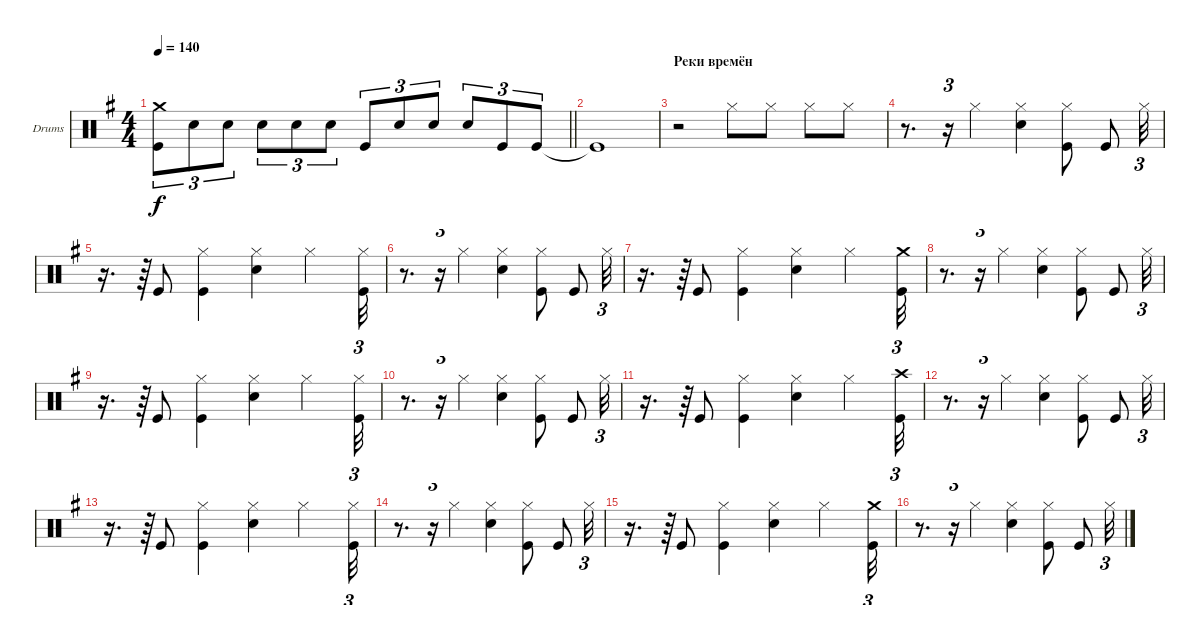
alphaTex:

\bracketExtendMode groupsimilarinstruments
\firstSystemTrackNameOrientation horizontal
\otherSystemsTrackNameOrientation horizontal
\track ("Александр Манякин" "Drums") {instrument percussion}
\staff {score}
\articulation defaults
\ts (4 4)
\tempo 140
\clef neutral
\barLineRight lightlight
\ks eminor
("Kick (hit)" "Crash medium (hit)").8{tu (3 2) dy f} "Snare (hit) 2".8{tu (3 2)} "Snare (hit) 2".8{tu (3 2)} "Snare (hit) 2".8{tu (3 2)} "Snare (hit) 2".8{tu (3 2)} "Snare (hit) 2".8{tu (3 2)} "Kick (hit)".8{tu (3 2)} "Snare (hit) 2".8{tu (3 2)} "Snare (hit) 2".8{tu (3 2)} "Snare (hit) 2".8{tu (3 2)} "Kick (hit)".8{tu (3 2)} "Kick (hit)".8{tu (3 2)} |
"Kick (hit)"{t}.1 |
\section ("" "Реки времён")
r.2 "Hi-Hat (closed)".8 "Hi-Hat (closed)".8 "Hi-Hat (closed)".8 "Hi-Hat (closed)".8 |
r.8{d} r.16{tu (3 2)} "Hi-Hat (closed)".4 ("Snare (hit) 2" "Hi-Hat (closed)").4 ("Kick (hit)" "Hi-Hat (closed)").8 "Kick (hit)".8 "Hi-Hat (closed)".32{tu (3 2)} |
r.16{d} r.64{tu (3 2)} "Kick (hit)".8 ("Kick (hit)" "Hi-Hat (closed)").4 ("Snare (hit) 2" "Hi-Hat (closed)").4 "Hi-Hat (closed)".4 ("Hi-Hat (closed)" "Kick (hit)").32{tu (3 2)} |
r.8{d} r.16{tu (3 2)} "Hi-Hat (closed)".4 ("Snare (hit) 2" "Hi-Hat (closed)").4 ("Kick (hit)" "Hi-Hat (closed)").8 "Kick (hit)".8 "Hi-Hat (closed)".32{tu (3 2)} |
r.16{d} r.64{tu (3 2)} "Kick (hit)".8 ("Kick (hit)" "Hi-Hat (closed)").4 ("Snare (hit) 2" "Hi-Hat (closed)").4 "Hi-Hat (closed)".4 ("Kick (hit)" "Crash medium (hit)").32{tu (3 2)} |
r.8{d} r.16{tu (3 2)} "Hi-Hat (closed)".4 ("Snare (hit) 2" "Hi-Hat (closed)").4 ("Kick (hit)" "Hi-Hat (closed)").8 "Kick (hit)".8 "Hi-Hat (closed)".32{tu (3 2)} |
r.16{d} r.64{tu (3 2)} "Kick (hit)".8 ("Kick (hit)" "Hi-Hat (closed)").4 ("Snare (hit) 2" "Hi-Hat (closed)").4 "Hi-Hat (closed)".4 ("Hi-Hat (closed)" "Kick (hit)").32{tu (3 2)} |
r.8{d} r.16{tu (3 2)} "Hi-Hat (closed)".4 ("Snare (hit) 2" "Hi-Hat (closed)").4 ("Kick (hit)" "Hi-Hat (closed)").8 "Kick (hit)".8 "Hi-Hat (closed)".32{tu (3 2)} |
r.16{d} r.64{tu (3 2)} "Kick (hit)".8 ("Kick (hit)" "Hi-Hat (closed)").4 ("Snare (hit) 2" "Hi-Hat (closed)").4 "Hi-Hat (closed)".4 ("Kick (hit)" "Crash high (hit)").32{tu (3 2)} |
r.8{d} r.16{tu (3 2)} "Hi-Hat (closed)".4 ("Snare (hit) 2" "Hi-Hat (closed)").4 ("Kick (hit)" "Hi-Hat (closed)").8 "Kick (hit)".8 "Hi-Hat (closed)".32{tu (3 2)} |
r.16{d} r.64{tu (3 2)} "Kick (hit)".8 ("Kick (hit)" "Hi-Hat (closed)").4 ("Snare (hit) 2" "Hi-Hat (closed)").4 "Hi-Hat (closed)".4 ("Hi-Hat (closed)" "Kick (hit)").32{tu (3 2)} |
r.8{d} r.16{tu (3 2)} "Hi-Hat (closed)".4 ("Snare (hit) 2" "Hi-Hat (closed)").4 ("Kick (hit)" "Hi-Hat (closed)").8 "Kick (hit)".8 "Hi-Hat (closed)".32{tu (3 2)} |
r.16{d} r.64{tu (3 2)} "Kick (hit)".8 ("Kick (hit)" "Hi-Hat (closed)").4 ("Snare (hit) 2" "Hi-Hat (closed)").4 "Hi-Hat (closed)".4 ("Kick (hit)" "Crash medium (hit)").32{tu (3 2)} |
r.8{d} r.16{tu (3 2)} "Hi-Hat (closed)".4 ("Snare (hit) 2" "Hi-Hat (closed)").4 ("Kick (hit)" "Hi-Hat (closed)").8 "Kick (hit)".8 "Hi-Hat (closed)".32{tu (3 2)}
